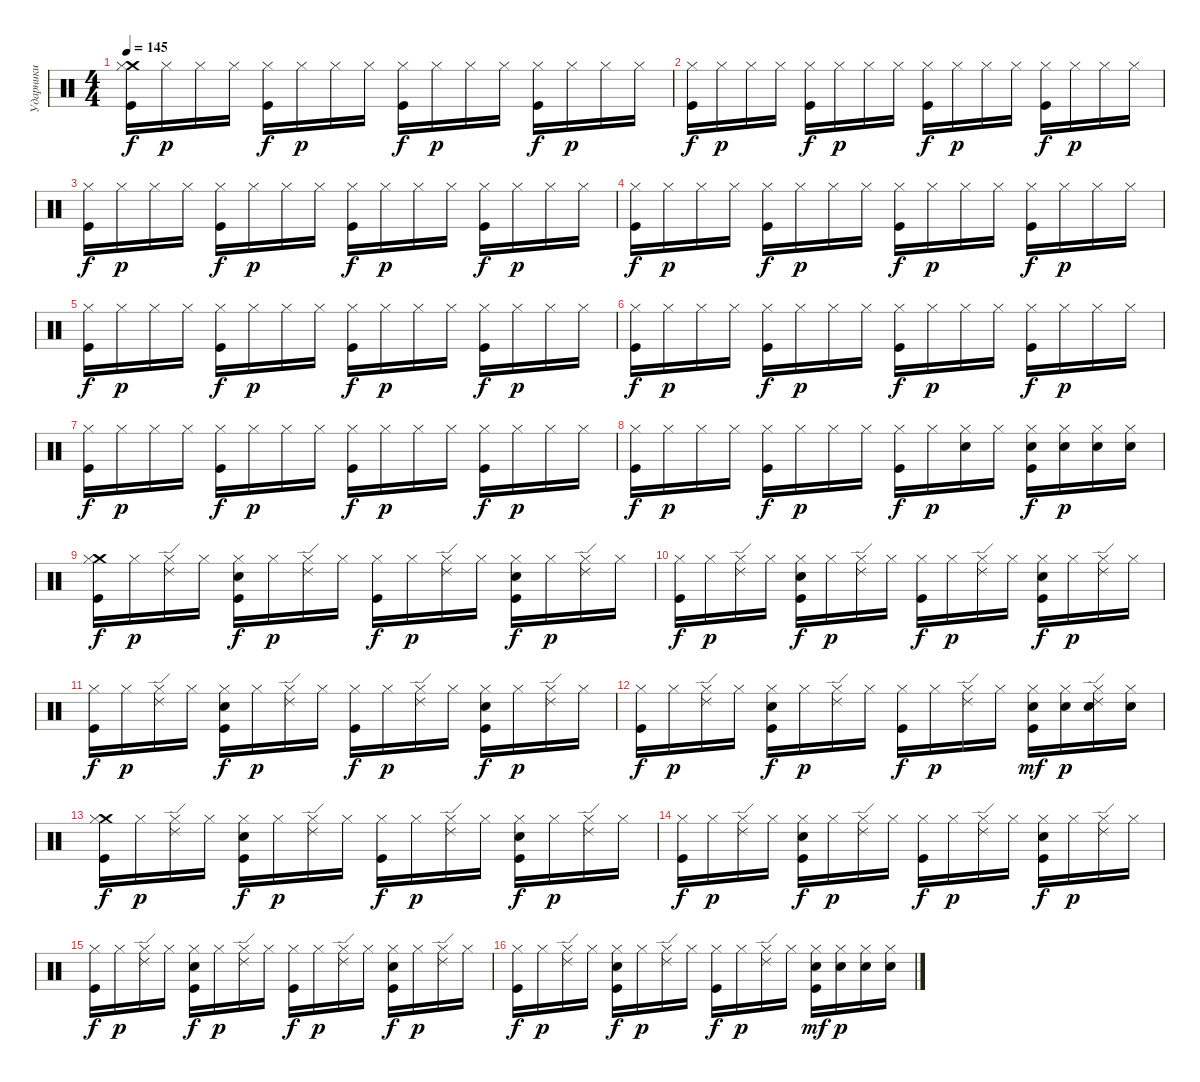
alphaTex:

\track ("Ударники" "Ударники") {instrument percussion}
\staff {score}
\articulation defaults
\ts (4 4)
\tempo 145
\clef neutral
\ks c
("Crash medium (hit)" "Kick (hit)" "Hi-Hat (closed)").16{dy f} "Hi-Hat (closed)".16{dy p} "Hi-Hat (closed)".16 "Hi-Hat (closed)".16 ("Kick (hit)" "Hi-Hat (closed)").16{dy f} "Hi-Hat (closed)".16{dy p} "Hi-Hat (closed)".16 "Hi-Hat (closed)".16 ("Kick (hit)" "Hi-Hat (closed)").16{dy f} "Hi-Hat (closed)".16{dy p} "Hi-Hat (closed)".16 "Hi-Hat (closed)".16 ("Kick (hit)" "Hi-Hat (closed)").16{dy f} "Hi-Hat (closed)".16{dy p} "Hi-Hat (closed)".16 "Hi-Hat (closed)".16 |
("Kick (hit)" "Hi-Hat (closed)").16{dy f} "Hi-Hat (closed)".16{dy p} "Hi-Hat (closed)".16 "Hi-Hat (closed)".16 ("Kick (hit)" "Hi-Hat (closed)").16{dy f} "Hi-Hat (closed)".16{dy p} "Hi-Hat (closed)".16 "Hi-Hat (closed)".16 ("Kick (hit)" "Hi-Hat (closed)").16{dy f} "Hi-Hat (closed)".16{dy p} "Hi-Hat (closed)".16 "Hi-Hat (closed)".16 ("Kick (hit)" "Hi-Hat (closed)").16{dy f} "Hi-Hat (closed)".16{dy p} "Hi-Hat (closed)".16 "Hi-Hat (closed)".16 |
("Kick (hit)" "Hi-Hat (closed)").16{dy f} "Hi-Hat (closed)".16{dy p} "Hi-Hat (closed)".16 "Hi-Hat (closed)".16 ("Kick (hit)" "Hi-Hat (closed)").16{dy f} "Hi-Hat (closed)".16{dy p} "Hi-Hat (closed)".16 "Hi-Hat (closed)".16 ("Kick (hit)" "Hi-Hat (closed)").16{dy f} "Hi-Hat (closed)".16{dy p} "Hi-Hat (closed)".16 "Hi-Hat (closed)".16 ("Kick (hit)" "Hi-Hat (closed)").16{dy f} "Hi-Hat (closed)".16{dy p} "Hi-Hat (closed)".16 "Hi-Hat (closed)".16 |
("Kick (hit)" "Hi-Hat (closed)").16{dy f} "Hi-Hat (closed)".16{dy p} "Hi-Hat (closed)".16 "Hi-Hat (closed)".16 ("Kick (hit)" "Hi-Hat (closed)").16{dy f} "Hi-Hat (closed)".16{dy p} "Hi-Hat (closed)".16 "Hi-Hat (closed)".16 ("Kick (hit)" "Hi-Hat (closed)").16{dy f} "Hi-Hat (closed)".16{dy p} "Hi-Hat (closed)".16 "Hi-Hat (closed)".16 ("Kick (hit)" "Hi-Hat (closed)").16{dy f} "Hi-Hat (closed)".16{dy p} "Hi-Hat (closed)".16 "Hi-Hat (closed)".16 |
("Kick (hit)" "Hi-Hat (closed)").16{dy f} "Hi-Hat (closed)".16{dy p} "Hi-Hat (closed)".16 "Hi-Hat (closed)".16 ("Kick (hit)" "Hi-Hat (closed)").16{dy f} "Hi-Hat (closed)".16{dy p} "Hi-Hat (closed)".16 "Hi-Hat (closed)".16 ("Kick (hit)" "Hi-Hat (closed)").16{dy f} "Hi-Hat (closed)".16{dy p} "Hi-Hat (closed)".16 "Hi-Hat (closed)".16 ("Kick (hit)" "Hi-Hat (closed)").16{dy f} "Hi-Hat (closed)".16{dy p} "Hi-Hat (closed)".16 "Hi-Hat (closed)".16 |
("Kick (hit)" "Hi-Hat (closed)").16{dy f} "Hi-Hat (closed)".16{dy p} "Hi-Hat (closed)".16 "Hi-Hat (closed)".16 ("Kick (hit)" "Hi-Hat (closed)").16{dy f} "Hi-Hat (closed)".16{dy p} "Hi-Hat (closed)".16 "Hi-Hat (closed)".16 ("Kick (hit)" "Hi-Hat (closed)").16{dy f} "Hi-Hat (closed)".16{dy p} "Hi-Hat (closed)".16 "Hi-Hat (closed)".16 ("Kick (hit)" "Hi-Hat (closed)").16{dy f} "Hi-Hat (closed)".16{dy p} "Hi-Hat (closed)".16 "Hi-Hat (closed)".16 |
("Kick (hit)" "Hi-Hat (closed)").16{dy f} "Hi-Hat (closed)".16{dy p} "Hi-Hat (closed)".16 "Hi-Hat (closed)".16 ("Kick (hit)" "Hi-Hat (closed)").16{dy f} "Hi-Hat (closed)".16{dy p} "Hi-Hat (closed)".16 "Hi-Hat (closed)".16 ("Kick (hit)" "Hi-Hat (closed)").16{dy f} "Hi-Hat (closed)".16{dy p} "Hi-Hat (closed)".16 "Hi-Hat (closed)".16 ("Kick (hit)" "Hi-Hat (closed)").16{dy f} "Hi-Hat (closed)".16{dy p} "Hi-Hat (closed)".16 "Hi-Hat (closed)".16 |
("Kick (hit)" "Hi-Hat (closed)").16{dy f} "Hi-Hat (closed)".16{dy p} "Hi-Hat (closed)".16 "Hi-Hat (closed)".16 ("Kick (hit)" "Hi-Hat (closed)").16{dy f} "Hi-Hat (closed)".16{dy p} "Hi-Hat (closed)".16 "Hi-Hat (closed)".16 ("Kick (hit)" "Hi-Hat (closed)").16{dy f} "Hi-Hat (closed)".16{dy p} ("Hi-Hat (closed)" "Electric Snare (hit)").16 "Hi-Hat (closed)".16 ("Kick (hit)" "Hi-Hat (closed)" "Electric Snare (hit)").16{dy f} ("Hi-Hat (closed)" "Electric Snare (hit)").16{dy p} ("Hi-Hat (closed)" "Electric Snare (hit)").16 ("Hi-Hat (closed)" "Electric Snare (hit)").16 |
("Crash medium (hit)" "Kick (hit)" "Hi-Hat (closed)").16{dy f} "Hi-Hat (closed)".16{dy p} ("Ride (edge) 2" "Hi-Hat (closed)").16 "Hi-Hat (closed)".16 ("Electric Snare (hit)" "Kick (hit)" "Hi-Hat (closed)").16{dy f} "Hi-Hat (closed)".16{dy p} ("Ride (edge) 2" "Hi-Hat (closed)").16 "Hi-Hat (closed)".16 ("Kick (hit)" "Hi-Hat (closed)").16{dy f} "Hi-Hat (closed)".16{dy p} ("Ride (edge) 2" "Hi-Hat (closed)").16 "Hi-Hat (closed)".16 ("Electric Snare (hit)" "Kick (hit)" "Hi-Hat (closed)").16{dy f} "Hi-Hat (closed)".16{dy p} ("Ride (edge) 2" "Hi-Hat (closed)").16 "Hi-Hat (closed)".16 |
("Kick (hit)" "Hi-Hat (closed)").16{dy f} "Hi-Hat (closed)".16{dy p} ("Ride (edge) 2" "Hi-Hat (closed)").16 "Hi-Hat (closed)".16 ("Electric Snare (hit)" "Kick (hit)" "Hi-Hat (closed)").16{dy f} "Hi-Hat (closed)".16{dy p} ("Ride (edge) 2" "Hi-Hat (closed)").16 "Hi-Hat (closed)".16 ("Kick (hit)" "Hi-Hat (closed)").16{dy f} "Hi-Hat (closed)".16{dy p} ("Ride (edge) 2" "Hi-Hat (closed)").16 "Hi-Hat (closed)".16 ("Electric Snare (hit)" "Kick (hit)" "Hi-Hat (closed)").16{dy f} "Hi-Hat (closed)".16{dy p} ("Ride (edge) 2" "Hi-Hat (closed)").16 "Hi-Hat (closed)".16 |
("Kick (hit)" "Hi-Hat (closed)").16{dy f} "Hi-Hat (closed)".16{dy p} ("Ride (edge) 2" "Hi-Hat (closed)").16 "Hi-Hat (closed)".16 ("Electric Snare (hit)" "Kick (hit)" "Hi-Hat (closed)").16{dy f} "Hi-Hat (closed)".16{dy p} ("Ride (edge) 2" "Hi-Hat (closed)").16 "Hi-Hat (closed)".16 ("Kick (hit)" "Hi-Hat (closed)").16{dy f} "Hi-Hat (closed)".16{dy p} ("Ride (edge) 2" "Hi-Hat (closed)").16 "Hi-Hat (closed)".16 ("Electric Snare (hit)" "Kick (hit)" "Hi-Hat (closed)").16{dy f} "Hi-Hat (closed)".16{dy p} ("Ride (edge) 2" "Hi-Hat (closed)").16 "Hi-Hat (closed)".16 |
("Kick (hit)" "Hi-Hat (closed)").16{dy f} "Hi-Hat (closed)".16{dy p} ("Ride (edge) 2" "Hi-Hat (closed)").16 "Hi-Hat (closed)".16 ("Electric Snare (hit)" "Kick (hit)" "Hi-Hat (closed)").16{dy f} "Hi-Hat (closed)".16{dy p} ("Ride (edge) 2" "Hi-Hat (closed)").16 "Hi-Hat (closed)".16 ("Kick (hit)" "Hi-Hat (closed)").16{dy f} "Hi-Hat (closed)".16{dy p} ("Ride (edge) 2" "Hi-Hat (closed)").16 "Hi-Hat (closed)".16 ("Electric Snare (hit)" "Kick (hit)" "Hi-Hat (closed)").16{dy mf} ("Electric Snare (hit)" "Hi-Hat (closed)").16{dy p} ("Electric Snare (hit)" "Ride (edge) 2" "Hi-Hat (closed)").16 ("Electric Snare (hit)" "Hi-Hat (closed)").16 |
("Crash medium (hit)" "Kick (hit)" "Hi-Hat (closed)").16{dy f} "Hi-Hat (closed)".16{dy p} ("Ride (edge) 2" "Hi-Hat (closed)").16 "Hi-Hat (closed)".16 ("Electric Snare (hit)" "Kick (hit)" "Hi-Hat (closed)").16{dy f} "Hi-Hat (closed)".16{dy p} ("Ride (edge) 2" "Hi-Hat (closed)").16 "Hi-Hat (closed)".16 ("Kick (hit)" "Hi-Hat (closed)").16{dy f} "Hi-Hat (closed)".16{dy p} ("Ride (edge) 2" "Hi-Hat (closed)").16 "Hi-Hat (closed)".16 ("Electric Snare (hit)" "Kick (hit)" "Hi-Hat (closed)").16{dy f} "Hi-Hat (closed)".16{dy p} ("Ride (edge) 2" "Hi-Hat (closed)").16 "Hi-Hat (closed)".16 |
("Kick (hit)" "Hi-Hat (closed)").16{dy f} "Hi-Hat (closed)".16{dy p} ("Ride (edge) 2" "Hi-Hat (closed)").16 "Hi-Hat (closed)".16 ("Electric Snare (hit)" "Kick (hit)" "Hi-Hat (closed)").16{dy f} "Hi-Hat (closed)".16{dy p} ("Ride (edge) 2" "Hi-Hat (closed)").16 "Hi-Hat (closed)".16 ("Kick (hit)" "Hi-Hat (closed)").16{dy f} "Hi-Hat (closed)".16{dy p} ("Ride (edge) 2" "Hi-Hat (closed)").16 "Hi-Hat (closed)".16 ("Electric Snare (hit)" "Kick (hit)" "Hi-Hat (closed)").16{dy f} "Hi-Hat (closed)".16{dy p} ("Ride (edge) 2" "Hi-Hat (closed)").16 "Hi-Hat (closed)".16 |
("Kick (hit)" "Hi-Hat (closed)").16{dy f} "Hi-Hat (closed)".16{dy p} ("Ride (edge) 2" "Hi-Hat (closed)").16 "Hi-Hat (closed)".16 ("Electric Snare (hit)" "Kick (hit)" "Hi-Hat (closed)").16{dy f} "Hi-Hat (closed)".16{dy p} ("Ride (edge) 2" "Hi-Hat (closed)").16 "Hi-Hat (closed)".16 ("Kick (hit)" "Hi-Hat (closed)").16{dy f} "Hi-Hat (closed)".16{dy p} ("Ride (edge) 2" "Hi-Hat (closed)").16 "Hi-Hat (closed)".16 ("Electric Snare (hit)" "Kick (hit)" "Hi-Hat (closed)").16{dy f} "Hi-Hat (closed)".16{dy p} ("Ride (edge) 2" "Hi-Hat (closed)").16 "Hi-Hat (closed)".16 |
("Kick (hit)" "Hi-Hat (closed)").16{dy f} "Hi-Hat (closed)".16{dy p} ("Ride (edge) 2" "Hi-Hat (closed)").16 "Hi-Hat (closed)".16 ("Electric Snare (hit)" "Kick (hit)" "Hi-Hat (closed)").16{dy f} "Hi-Hat (closed)".16{dy p} ("Ride (edge) 2" "Hi-Hat (closed)").16 "Hi-Hat (closed)".16 ("Kick (hit)" "Hi-Hat (closed)").16{dy f} "Hi-Hat (closed)".16{dy p} ("Ride (edge) 2" "Hi-Hat (closed)").16 "Hi-Hat (closed)".16 ("Electric Snare (hit)" "Kick (hit)" "Hi-Hat (closed)").16{dy mf} ("Electric Snare (hit)" "Hi-Hat (closed)").16{dy p} ("Electric Snare (hit)" "Hi-Hat (closed)").16 ("Electric Snare (hit)" "Hi-Hat (closed)").16
